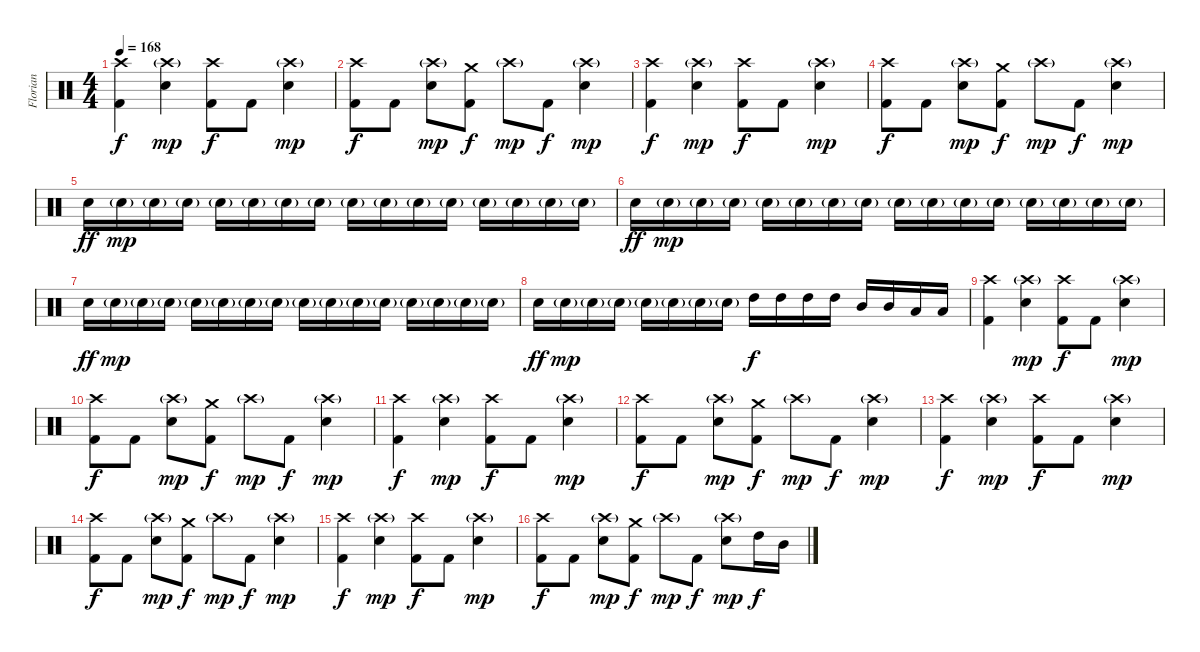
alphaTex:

\track ("Florian" "Florian") {instrument percussion}
\staff {score}
\articulation defaults
\ts (4 4)
\tempo 168
\clef neutral
\ks c
("Crash high (hit)" "Kick (hit) 2").4{dy f} ("Crash high (hit)"{g} "Snare (hit) 2").4{dy mp} ("Crash high (hit)" "Kick (hit) 2").8{dy f} "Kick (hit) 2".8 ("Crash high (hit)"{g} "Snare (hit) 2").4{dy mp} |
("Crash high (hit)" "Kick (hit) 2").8{dy f} "Kick (hit) 2".8 ("Crash high (hit)"{g} "Snare (hit) 2").8{dy mp} ("Crash medium (hit)" "Kick (hit) 2").8{dy f} "Crash high (hit)"{g}.8{dy mp} "Kick (hit) 2".8{dy f} ("Crash high (hit)"{g} "Snare (hit) 2").4{dy mp} |
("Crash high (hit)" "Kick (hit) 2").4{dy f} ("Crash high (hit)"{g} "Snare (hit) 2").4{dy mp} ("Crash high (hit)" "Kick (hit) 2").8{dy f} "Kick (hit) 2".8 ("Crash high (hit)"{g} "Snare (hit) 2").4{dy mp} |
("Crash high (hit)" "Kick (hit) 2").8{dy f} "Kick (hit) 2".8 ("Crash high (hit)"{g} "Snare (hit) 2").8{dy mp} ("Crash medium (hit)" "Kick (hit) 2").8{dy f} "Crash high (hit)"{g}.8{dy mp} "Kick (hit) 2".8{dy f} ("Crash high (hit)"{g} "Snare (hit) 2").4{dy mp} |
"Snare (hit) 2".16{dy ff} "Snare (hit) 2"{g}.16{dy mp} "Snare (hit) 2"{g}.16 "Snare (hit) 2"{g}.16 "Snare (hit) 2"{g}.16 "Snare (hit) 2"{g}.16 "Snare (hit) 2"{g}.16 "Snare (hit) 2"{g}.16 "Snare (hit) 2"{g}.16 "Snare (hit) 2"{g}.16 "Snare (hit) 2"{g}.16 "Snare (hit) 2"{g}.16 "Snare (hit) 2"{g}.16 "Snare (hit) 2"{g}.16 "Snare (hit) 2"{g}.16 "Snare (hit) 2"{g}.16 |
"Snare (hit) 2".16{dy ff} "Snare (hit) 2"{g}.16{dy mp} "Snare (hit) 2"{g}.16 "Snare (hit) 2"{g}.16 "Snare (hit) 2"{g}.16 "Snare (hit) 2"{g}.16 "Snare (hit) 2"{g}.16 "Snare (hit) 2"{g}.16 "Snare (hit) 2"{g}.16 "Snare (hit) 2"{g}.16 "Snare (hit) 2"{g}.16 "Snare (hit) 2"{g}.16 "Snare (hit) 2"{g}.16 "Snare (hit) 2"{g}.16 "Snare (hit) 2"{g}.16 "Snare (hit) 2"{g}.16 |
"Snare (hit) 2".16{dy ff} "Snare (hit) 2"{g}.16{dy mp} "Snare (hit) 2"{g}.16 "Snare (hit) 2"{g}.16 "Snare (hit) 2"{g}.16 "Snare (hit) 2"{g}.16 "Snare (hit) 2"{g}.16 "Snare (hit) 2"{g}.16 "Snare (hit) 2"{g}.16 "Snare (hit) 2"{g}.16 "Snare (hit) 2"{g}.16 "Snare (hit) 2"{g}.16 "Snare (hit) 2"{g}.16 "Snare (hit) 2"{g}.16 "Snare (hit) 2"{g}.16 "Snare (hit) 2"{g}.16 |
"Snare (hit) 2".16{dy ff} "Snare (hit) 2"{g}.16{dy mp} "Snare (hit) 2"{g}.16 "Snare (hit) 2"{g}.16 "Snare (hit) 2"{g}.16 "Snare (hit) 2"{g}.16 "Snare (hit) 2"{g}.16 "Snare (hit) 2"{g}.16 "High Tom (hit)".16{dy f} "High Tom (hit)".16 "High Tom (hit)".16 "High Tom (hit)".16 "Mid Tom (hit)".16 "Mid Tom (hit)".16 "Low Tom (hit)".16 "Low Tom (hit)".16 |
("Crash high (hit)" "Kick (hit) 2").4 ("Crash high (hit)"{g} "Snare (hit) 2").4{dy mp} ("Crash high (hit)" "Kick (hit) 2").8{dy f} "Kick (hit) 2".8 ("Crash high (hit)"{g} "Snare (hit) 2").4{dy mp} |
("Crash high (hit)" "Kick (hit) 2").8{dy f} "Kick (hit) 2".8 ("Crash high (hit)"{g} "Snare (hit) 2").8{dy mp} ("Crash medium (hit)" "Kick (hit) 2").8{dy f} "Crash high (hit)"{g}.8{dy mp} "Kick (hit) 2".8{dy f} ("Crash high (hit)"{g} "Snare (hit) 2").4{dy mp} |
("Crash high (hit)" "Kick (hit) 2").4{dy f} ("Crash high (hit)"{g} "Snare (hit) 2").4{dy mp} ("Crash high (hit)" "Kick (hit) 2").8{dy f} "Kick (hit) 2".8 ("Crash high (hit)"{g} "Snare (hit) 2").4{dy mp} |
("Crash high (hit)" "Kick (hit) 2").8{dy f} "Kick (hit) 2".8 ("Crash high (hit)"{g} "Snare (hit) 2").8{dy mp} ("Crash medium (hit)" "Kick (hit) 2").8{dy f} "Crash high (hit)"{g}.8{dy mp} "Kick (hit) 2".8{dy f} ("Crash high (hit)"{g} "Snare (hit) 2").4{dy mp} |
("Crash high (hit)" "Kick (hit) 2").4{dy f} ("Crash high (hit)"{g} "Snare (hit) 2").4{dy mp} ("Crash high (hit)" "Kick (hit) 2").8{dy f} "Kick (hit) 2".8 ("Crash high (hit)"{g} "Snare (hit) 2").4{dy mp} |
("Crash high (hit)" "Kick (hit) 2").8{dy f} "Kick (hit) 2".8 ("Crash high (hit)"{g} "Snare (hit) 2").8{dy mp} ("Crash medium (hit)" "Kick (hit) 2").8{dy f} "Crash high (hit)"{g}.8{dy mp} "Kick (hit) 2".8{dy f} ("Crash high (hit)"{g} "Snare (hit) 2").4{dy mp} |
("Crash high (hit)" "Kick (hit) 2").4{dy f} ("Crash high (hit)"{g} "Snare (hit) 2").4{dy mp} ("Crash high (hit)" "Kick (hit) 2").8{dy f} "Kick (hit) 2".8 ("Crash high (hit)"{g} "Snare (hit) 2").4{dy mp} |
("Crash high (hit)" "Kick (hit) 2").8{dy f} "Kick (hit) 2".8 ("Crash high (hit)"{g} "Snare (hit) 2").8{dy mp} ("Crash medium (hit)" "Kick (hit) 2").8{dy f} "Crash high (hit)"{g}.8{dy mp} "Kick (hit) 2".8{dy f} ("Crash high (hit)"{g} "Snare (hit) 2").8{dy mp} "High Tom (hit)".16{dy f} "Mid Tom (hit)".16
